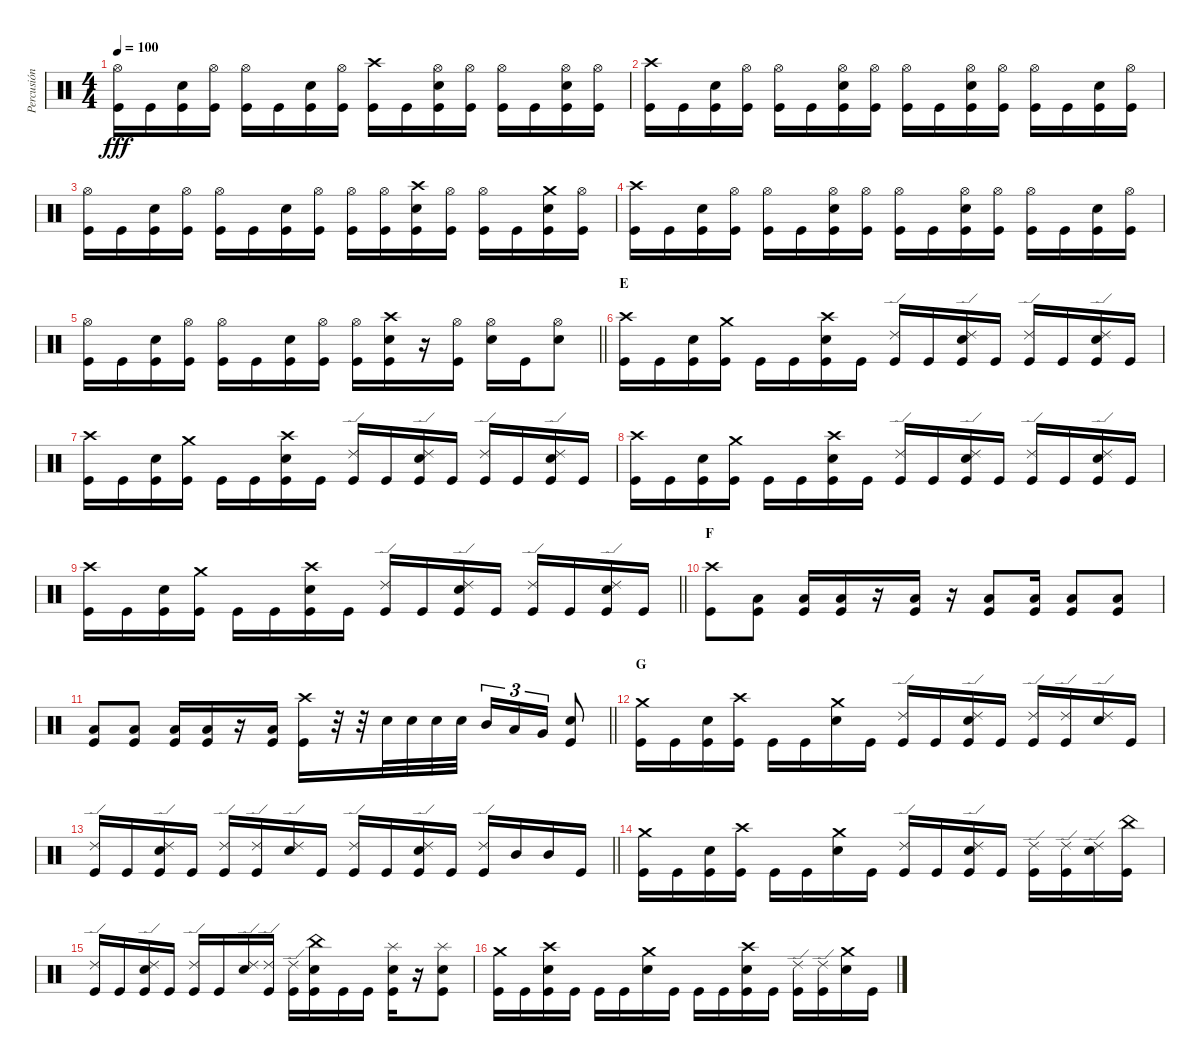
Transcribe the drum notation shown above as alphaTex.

\track ("Percusión" "Percusión") {instrument percussion}
\staff {score}
\articulation defaults
\ts (4 4)
\tempo 100
\clef neutral
\ks c
("Hi-Hat (open)" "Kick (hit)").16{dy fff} "Kick (hit)".16 ("Electric Snare (hit)" "Kick (hit)").16 ("Hi-Hat (open)" "Kick (hit)").16 ("Hi-Hat (open)" "Kick (hit)").16 "Kick (hit)".16 ("Electric Snare (hit)" "Kick (hit)").16 ("Hi-Hat (open)" "Kick (hit)").16 ("Crash high (hit)" "Kick (hit)").16 "Kick (hit)".16 ("Hi-Hat (open)" "Electric Snare (hit)" "Kick (hit)").16 ("Hi-Hat (open)" "Kick (hit)").16 ("Hi-Hat (open)" "Kick (hit)").16 "Kick (hit)".16 ("Hi-Hat (open)" "Electric Snare (hit)" "Kick (hit)").16 ("Hi-Hat (open)" "Kick (hit)").16 |
("Crash high (hit)" "Kick (hit)").16 "Kick (hit)".16 ("Electric Snare (hit)" "Kick (hit)").16 ("Hi-Hat (open)" "Kick (hit)").16 ("Hi-Hat (open)" "Kick (hit)").16 "Kick (hit)".16 ("Hi-Hat (open)" "Electric Snare (hit)" "Kick (hit)").16 ("Hi-Hat (open)" "Kick (hit)").16 ("Hi-Hat (open)" "Kick (hit)").16 "Kick (hit)".16 ("Hi-Hat (open)" "Electric Snare (hit)" "Kick (hit)").16 ("Hi-Hat (open)" "Kick (hit)").16 ("Hi-Hat (open)" "Kick (hit)").16 "Kick (hit)".16 ("Electric Snare (hit)" "Kick (hit)").16 ("Hi-Hat (open)" "Kick (hit)").16 |
("Hi-Hat (open)" "Kick (hit)").16 "Kick (hit)".16 ("Electric Snare (hit)" "Kick (hit)").16 ("Hi-Hat (open)" "Kick (hit)").16 ("Hi-Hat (open)" "Kick (hit)").16 "Kick (hit)".16 ("Electric Snare (hit)" "Kick (hit)").16 ("Hi-Hat (open)" "Kick (hit)").16 ("Hi-Hat (open)" "Kick (hit)").16 ("Hi-Hat (open)" "Kick (hit)").16 ("Crash high (hit)" "Electric Snare (hit)" "Kick (hit)").16 ("Hi-Hat (open)" "Kick (hit)").16 ("Hi-Hat (open)" "Kick (hit)").16 "Kick (hit)".16 ("Crash medium (hit)" "Electric Snare (hit)" "Kick (hit)").16 ("Hi-Hat (open)" "Kick (hit)").16 |
("Crash high (hit)" "Kick (hit)").16 "Kick (hit)".16 ("Electric Snare (hit)" "Kick (hit)").16 ("Hi-Hat (open)" "Kick (hit)").16 ("Hi-Hat (open)" "Kick (hit)").16 "Kick (hit)".16 ("Hi-Hat (open)" "Electric Snare (hit)" "Kick (hit)").16 ("Hi-Hat (open)" "Kick (hit)").16 ("Hi-Hat (open)" "Kick (hit)").16 "Kick (hit)".16 ("Hi-Hat (open)" "Electric Snare (hit)" "Kick (hit)").16 ("Hi-Hat (open)" "Kick (hit)").16 ("Hi-Hat (open)" "Kick (hit)").16 "Kick (hit)".16 ("Electric Snare (hit)" "Kick (hit)").16 ("Hi-Hat (open)" "Kick (hit)").16 |
\barLineRight lightlight
("Hi-Hat (open)" "Kick (hit)").16 "Kick (hit)".16 ("Electric Snare (hit)" "Kick (hit)").16 ("Hi-Hat (open)" "Kick (hit)").16 ("Hi-Hat (open)" "Kick (hit)").16 "Kick (hit)".16 ("Electric Snare (hit)" "Kick (hit)").16 ("Hi-Hat (open)" "Kick (hit)").16 ("Hi-Hat (open)" "Kick (hit)").16 ("Crash high (hit)" "Electric Snare (hit)" "Kick (hit)").16 r.16 ("Hi-Hat (open)" "Kick (hit)").16 ("Hi-Hat (open)" "Electric Snare (hit)").16 "Kick (hit)".16 ("Hi-Hat (open)" "Electric Snare (hit)").8 |
\section ("" "E")
("Crash high (hit)" "Kick (hit)").16 "Kick (hit)".16 ("Electric Snare (hit)" "Kick (hit)").16 ("Crash medium (hit)" "Kick (hit)").16 "Kick (hit)".16 "Kick (hit)".16 ("Crash high (hit)" "Electric Snare (hit)" "Kick (hit)").16 "Kick (hit)".16 ("Ride (edge) 2" "Kick (hit)").16 "Kick (hit)".16 ("Ride (edge) 2" "Electric Snare (hit)" "Kick (hit)").16 "Kick (hit)".16 ("Ride (edge) 2" "Kick (hit)").16 "Kick (hit)".16 ("Ride (edge) 2" "Electric Snare (hit)" "Kick (hit)").16 "Kick (hit)".16 |
("Crash high (hit)" "Kick (hit)").16 "Kick (hit)".16 ("Electric Snare (hit)" "Kick (hit)").16 ("Crash medium (hit)" "Kick (hit)").16 "Kick (hit)".16 "Kick (hit)".16 ("Crash high (hit)" "Electric Snare (hit)" "Kick (hit)").16 "Kick (hit)".16 ("Ride (edge) 2" "Kick (hit)").16 "Kick (hit)".16 ("Ride (edge) 2" "Electric Snare (hit)" "Kick (hit)").16 "Kick (hit)".16 ("Ride (edge) 2" "Kick (hit)").16 "Kick (hit)".16 ("Ride (edge) 2" "Electric Snare (hit)" "Kick (hit)").16 "Kick (hit)".16 |
("Crash high (hit)" "Kick (hit)").16 "Kick (hit)".16 ("Electric Snare (hit)" "Kick (hit)").16 ("Crash medium (hit)" "Kick (hit)").16 "Kick (hit)".16 "Kick (hit)".16 ("Crash high (hit)" "Electric Snare (hit)" "Kick (hit)").16 "Kick (hit)".16 ("Ride (edge) 2" "Kick (hit)").16 "Kick (hit)".16 ("Ride (edge) 2" "Electric Snare (hit)" "Kick (hit)").16 "Kick (hit)".16 ("Ride (edge) 2" "Kick (hit)").16 "Kick (hit)".16 ("Ride (edge) 2" "Electric Snare (hit)" "Kick (hit)").16 "Kick (hit)".16 |
\barLineRight lightlight
("Crash high (hit)" "Kick (hit)").16 "Kick (hit)".16 ("Electric Snare (hit)" "Kick (hit)").16 ("Crash medium (hit)" "Kick (hit)").16 "Kick (hit)".16 "Kick (hit)".16 ("Crash high (hit)" "Electric Snare (hit)" "Kick (hit)").16 "Kick (hit)".16 ("Ride (edge) 2" "Kick (hit)").16 "Kick (hit)".16 ("Ride (edge) 2" "Electric Snare (hit)" "Kick (hit)").16 "Kick (hit)".16 ("Ride (edge) 2" "Kick (hit)").16 "Kick (hit)".16 ("Ride (edge) 2" "Electric Snare (hit)" "Kick (hit)").16 "Kick (hit)".16 |
\section ("" "F")
("Crash high (hit)" "Kick (hit)").8 ("Low Tom (hit)" "Kick (hit)").8 ("Low Tom (hit)" "Kick (hit)").16 ("Low Tom (hit)" "Kick (hit)").16 r.16 ("Low Tom (hit)" "Kick (hit)").16 r.16 ("Low Tom (hit)" "Kick (hit)").8 ("Low Tom (hit)" "Kick (hit)").16 ("Low Tom (hit)" "Kick (hit)").8 ("Low Tom (hit)" "Kick (hit)").8 |
\barLineRight lightlight
("Low Tom (hit)" "Kick (hit)").8 ("Low Tom (hit)" "Kick (hit)").8 ("Low Tom (hit)" "Kick (hit)").16 ("Low Tom (hit)" "Kick (hit)").16 r.16 ("Low Tom (hit)" "Kick (hit)").16 ("Crash high (hit)" "Kick (hit)").16 r.32 r.32 "Electric Snare (hit)".32 "Electric Snare (hit)".32 "Electric Snare (hit)".32 "Electric Snare (hit)".32 "Mid Tom (hit)".16{tu (3 2)} "Low Tom (hit)".16{tu (3 2)} "Very Low Tom (hit)".16{tu (3 2)} ("Electric Snare (hit)" "Kick (hit)").8 |
\section ("" "G")
("Crash medium (hit)" "Kick (hit)").16 "Kick (hit)".16 ("Electric Snare (hit)" "Kick (hit)").16 ("Crash high (hit)" "Kick (hit)").16 "Kick (hit)".16 "Kick (hit)".16 ("Crash medium (hit)" "Electric Snare (hit)").16 "Kick (hit)".16 ("Ride (edge) 2" "Kick (hit)").16 "Kick (hit)".16 ("Ride (edge) 2" "Electric Snare (hit)" "Kick (hit)").16 "Kick (hit)".16 ("Ride (edge) 2" "Kick (hit)").16 ("Ride (edge) 2" "Kick (hit)").16 ("Ride (edge) 2" "Electric Snare (hit)").16 "Kick (hit)".16 |
\barLineRight lightlight
("Ride (edge) 2" "Kick (hit)").16 "Kick (hit)".16 ("Ride (edge) 2" "Electric Snare (hit)" "Kick (hit)").16 "Kick (hit)".16 ("Ride (edge) 2" "Kick (hit)").16 ("Ride (edge) 2" "Kick (hit)").16 ("Ride (edge) 2" "Electric Snare (hit)").16 "Kick (hit)".16 ("Ride (edge) 2" "Kick (hit)").16 "Kick (hit)".16 ("Ride (edge) 2" "Electric Snare (hit)" "Kick (hit)").16 "Kick (hit)".16 ("Ride (edge) 2" "Kick (hit)").16 "Mid Tom (hit)".16 "Mid Tom (hit)".16 "Kick (hit)".16 |
("Crash medium (hit)" "Kick (hit)").16 "Kick (hit)".16 ("Electric Snare (hit)" "Kick (hit)").16 ("Crash high (hit)" "Kick (hit)").16 "Kick (hit)".16 "Kick (hit)".16 ("Crash medium (hit)" "Electric Snare (hit)").16 "Kick (hit)".16 ("Ride (edge) 2" "Kick (hit)").16 "Kick (hit)".16 ("Ride (edge) 2" "Electric Snare (hit)" "Kick (hit)").16 "Kick (hit)".16 ("Ride (edge) 2" "Kick (hit)").16 ("Ride (edge) 2" "Kick (hit)").16 ("Ride (edge) 2" "Electric Snare (hit)").16 ("China (hit)" "Kick (hit)").16 |
("Ride (edge) 2" "Kick (hit)").16 "Kick (hit)".16 ("Ride (edge) 2" "Electric Snare (hit)" "Kick (hit)").16 "Kick (hit)".16 ("Ride (edge) 2" "Kick (hit)").16 "Kick (hit)".16 ("Ride (edge) 2" "Electric Snare (hit)").16 ("Ride (edge) 2" "Kick (hit)").16 ("Ride (edge) 2" "Kick (hit)").16 ("China (hit)" "Electric Snare (hit)" "Kick (hit)").16 "Kick (hit)".16 "Kick (hit)".16 ("Splash (hit)" "Electric Snare (hit)" "Kick (hit)").16 r.16 ("Splash (hit)" "Electric Snare (hit)" "Kick (hit)").8 |
("Crash medium (hit)" "Kick (hit)").16 "Kick (hit)".16 ("Crash high (hit)" "Electric Snare (hit)" "Kick (hit)").16 "Kick (hit)".16 "Kick (hit)".16 "Kick (hit)".16 ("Crash medium (hit)" "Electric Snare (hit)").16 "Kick (hit)".16 "Kick (hit)".16 "Kick (hit)".16 ("Crash high (hit)" "Electric Snare (hit)" "Kick (hit)").16 "Kick (hit)".16 ("Ride (edge) 2" "Kick (hit)").16 ("Ride (edge) 2" "Kick (hit)").16 ("Crash medium (hit)" "Electric Snare (hit)").16 "Kick (hit)".16
